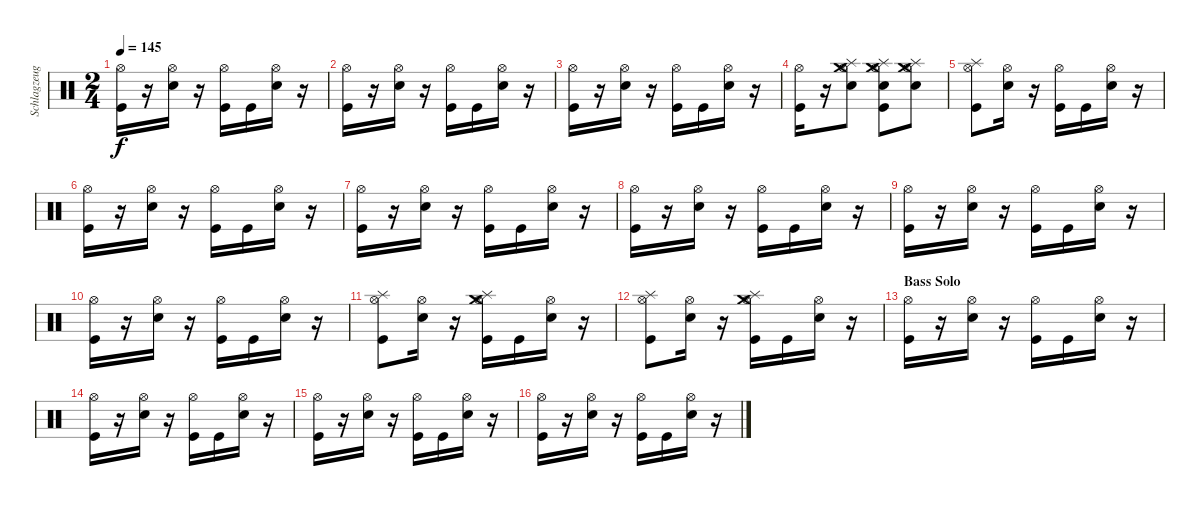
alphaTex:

\track ("Schlagzeug - Bela B." "Schlagzeug") {instrument percussion}
\staff {score}
\articulation defaults
\ts (2 4)
\tempo 145
\clef neutral
\ks c
("Kick (hit)" "Hi-Hat (open)").16{dy f} r.16 ("Electric Snare (hit)" "Hi-Hat (open)").16 r.16 ("Kick (hit)" "Hi-Hat (open)").16 "Kick (hit)".16 ("Electric Snare (hit)" "Hi-Hat (open)").16 r.16 |
("Kick (hit)" "Hi-Hat (open)").16 r.16 ("Electric Snare (hit)" "Hi-Hat (open)").16 r.16 ("Kick (hit)" "Hi-Hat (open)").16 "Kick (hit)".16 ("Electric Snare (hit)" "Hi-Hat (open)").16 r.16 |
("Kick (hit)" "Hi-Hat (open)").16 r.16 ("Electric Snare (hit)" "Hi-Hat (open)").16 r.16 ("Kick (hit)" "Hi-Hat (open)").16 "Kick (hit)".16 ("Electric Snare (hit)" "Hi-Hat (open)").16 r.16 |
("Kick (hit)" "Hi-Hat (open)").16 r.16 ("Electric Snare (hit)" "Hi-Hat (open)" "Splash (hit)" "Crash medium (hit)").8 ("Kick (hit)" "Hi-Hat (open)" "Electric Snare (hit)" "Splash (hit)" "Crash medium (hit)").8 ("Electric Snare (hit)" "Hi-Hat (open)" "Splash (hit)" "Crash medium (hit)").8 |
("Kick (hit)" "Hi-Hat (open)" "Splash (hit)").8 ("Electric Snare (hit)" "Hi-Hat (open)").16 r.16 ("Kick (hit)" "Hi-Hat (open)").16 "Kick (hit)".16 ("Electric Snare (hit)" "Hi-Hat (open)").16 r.16 |
("Kick (hit)" "Hi-Hat (open)").16 r.16 ("Electric Snare (hit)" "Hi-Hat (open)").16 r.16 ("Kick (hit)" "Hi-Hat (open)").16 "Kick (hit)".16 ("Electric Snare (hit)" "Hi-Hat (open)").16 r.16 |
("Kick (hit)" "Hi-Hat (open)").16 r.16 ("Electric Snare (hit)" "Hi-Hat (open)").16 r.16 ("Kick (hit)" "Hi-Hat (open)").16 "Kick (hit)".16 ("Electric Snare (hit)" "Hi-Hat (open)").16 r.16 |
("Kick (hit)" "Hi-Hat (open)").16 r.16 ("Electric Snare (hit)" "Hi-Hat (open)").16 r.16 ("Kick (hit)" "Hi-Hat (open)").16 "Kick (hit)".16 ("Electric Snare (hit)" "Hi-Hat (open)").16 r.16 |
("Kick (hit)" "Hi-Hat (open)").16 r.16 ("Electric Snare (hit)" "Hi-Hat (open)").16 r.16 ("Kick (hit)" "Hi-Hat (open)").16 "Kick (hit)".16 ("Electric Snare (hit)" "Hi-Hat (open)").16 r.16 |
("Kick (hit)" "Hi-Hat (open)").16 r.16 ("Electric Snare (hit)" "Hi-Hat (open)").16 r.16 ("Kick (hit)" "Hi-Hat (open)").16 "Kick (hit)".16 ("Electric Snare (hit)" "Hi-Hat (open)").16 r.16 |
("Kick (hit)" "Hi-Hat (open)" "Splash (hit)").8 ("Electric Snare (hit)" "Hi-Hat (open)").16 r.16 ("Kick (hit)" "Hi-Hat (open)" "Splash (hit)" "Crash medium (hit)").16 "Kick (hit)".16 ("Electric Snare (hit)" "Hi-Hat (open)").16 r.16 |
("Kick (hit)" "Hi-Hat (open)" "Splash (hit)").8 ("Electric Snare (hit)" "Hi-Hat (open)").16 r.16 ("Kick (hit)" "Hi-Hat (open)" "Splash (hit)" "Crash medium (hit)").16 "Kick (hit)".16 ("Electric Snare (hit)" "Hi-Hat (open)").16 r.16 |
\section ("" "Bass Solo")
("Kick (hit)" "Hi-Hat (open)").16 r.16 ("Electric Snare (hit)" "Hi-Hat (open)").16 r.16 ("Kick (hit)" "Hi-Hat (open)").16 "Kick (hit)".16 ("Electric Snare (hit)" "Hi-Hat (open)").16 r.16 |
("Kick (hit)" "Hi-Hat (open)").16 r.16 ("Electric Snare (hit)" "Hi-Hat (open)").16 r.16 ("Kick (hit)" "Hi-Hat (open)").16 "Kick (hit)".16 ("Electric Snare (hit)" "Hi-Hat (open)").16 r.16 |
("Kick (hit)" "Hi-Hat (open)").16 r.16 ("Electric Snare (hit)" "Hi-Hat (open)").16 r.16 ("Kick (hit)" "Hi-Hat (open)").16 "Kick (hit)".16 ("Electric Snare (hit)" "Hi-Hat (open)").16 r.16 |
("Kick (hit)" "Hi-Hat (open)").16 r.16 ("Electric Snare (hit)" "Hi-Hat (open)").16 r.16 ("Kick (hit)" "Hi-Hat (open)").16 "Kick (hit)".16 ("Electric Snare (hit)" "Hi-Hat (open)").16 r.16
